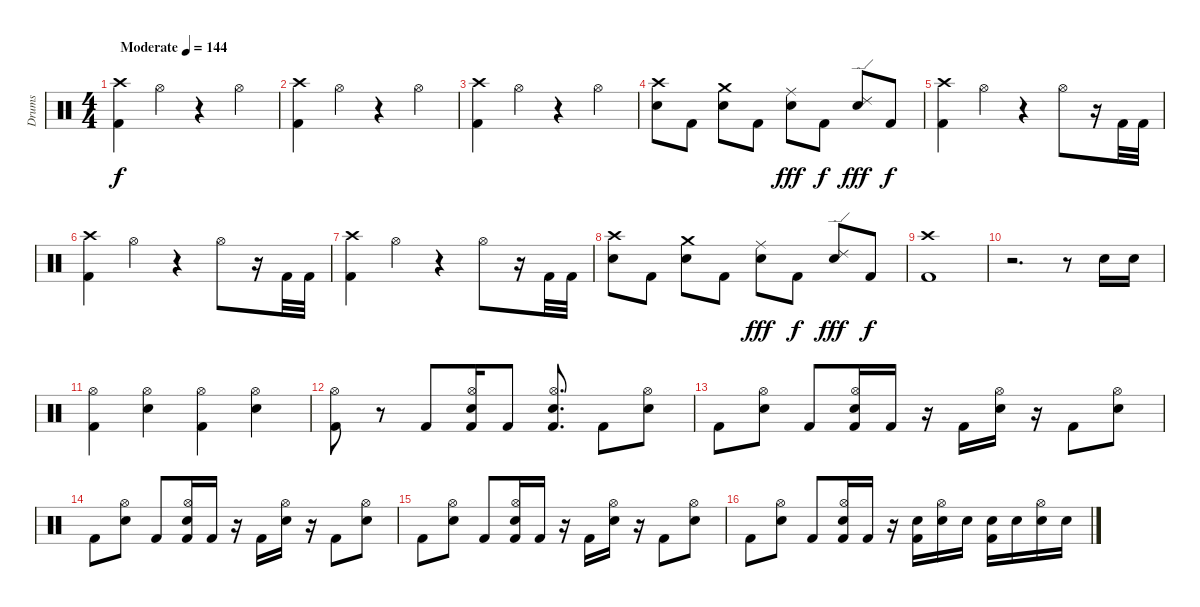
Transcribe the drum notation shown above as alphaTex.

\track ("Drums" "Drums") {instrument percussion}
\staff {score}
\articulation defaults
\ts (4 4)
\tempo (144 "Moderate")
\clef neutral
\ks c
("Crash high (hit)" "Kick (hit) 2").4{dy f} "Hi-Hat (open)".4 r.4 "Hi-Hat (open)".4 |
("Crash high (hit)" "Kick (hit) 2").4 "Hi-Hat (open)".4 r.4 "Hi-Hat (open)".4 |
("Crash high (hit)" "Kick (hit) 2").4 "Hi-Hat (open)".4 r.4 "Hi-Hat (open)".4 |
("Crash high (hit)" "Snare (hit) 2").8 "Kick (hit) 2".8 ("Crash medium (hit)" "Snare (hit) 2").8 "Kick (hit) 2".8 ("Ride (middle)" "Snare (hit) 2").8{dy fff} "Kick (hit) 2".8{dy f} ("Ride (edge) 2" "Snare (hit) 2").8{dy fff} "Kick (hit) 2".8{dy f} |
("Crash high (hit)" "Kick (hit) 2").4 "Hi-Hat (open)".4 r.4 "Hi-Hat (open)".8 r.16 "Kick (hit) 2".32 "Kick (hit) 2".32 |
("Crash high (hit)" "Kick (hit) 2").4 "Hi-Hat (open)".4 r.4 "Hi-Hat (open)".8 r.16 "Kick (hit) 2".32 "Kick (hit) 2".32 |
("Crash high (hit)" "Kick (hit) 2").4 "Hi-Hat (open)".4 r.4 "Hi-Hat (open)".8 r.16 "Kick (hit) 2".32 "Kick (hit) 2".32 |
("Crash high (hit)" "Snare (hit) 2").8 "Kick (hit) 2".8 ("Crash medium (hit)" "Snare (hit) 2").8 "Kick (hit) 2".8 ("Ride (middle)" "Snare (hit) 2").8{dy fff} "Kick (hit) 2".8{dy f} ("Ride (edge) 2" "Snare (hit) 2").8{dy fff} "Kick (hit) 2".8{dy f} |
("Crash high (hit)" "Kick (hit) 2").1 |
r.2{d} r.8 "Snare (hit) 2".16 "Snare (hit) 2".16 |
("Hi-Hat (open)" "Kick (hit) 2").4 ("Hi-Hat (open)" "Snare (hit) 2").4 ("Hi-Hat (open)" "Kick (hit) 2").4 ("Hi-Hat (open)" "Snare (hit) 2").4 |
("Hi-Hat (open)" "Kick (hit) 2").8 r.8 "Kick (hit) 2".8 ("Hi-Hat (open)" "Snare (hit) 2" "Kick (hit) 2").16 "Kick (hit) 2".8 ("Hi-Hat (open)" "Snare (hit) 2" "Kick (hit) 2").8{d} "Kick (hit) 2".8 ("Hi-Hat (open)" "Snare (hit) 2").8 |
"Kick (hit) 2".8 ("Hi-Hat (open)" "Snare (hit) 2").8 "Kick (hit) 2".8 ("Hi-Hat (open)" "Snare (hit) 2" "Kick (hit) 2").16 "Kick (hit) 2".16 r.16 "Kick (hit) 2".16 ("Hi-Hat (open)" "Snare (hit) 2").16 r.16 "Kick (hit) 2".8 ("Hi-Hat (open)" "Snare (hit) 2").8 |
"Kick (hit) 2".8 ("Hi-Hat (open)" "Snare (hit) 2").8 "Kick (hit) 2".8 ("Hi-Hat (open)" "Snare (hit) 2" "Kick (hit) 2").16 "Kick (hit) 2".16 r.16 "Kick (hit) 2".16 ("Hi-Hat (open)" "Snare (hit) 2").16 r.16 "Kick (hit) 2".8 ("Hi-Hat (open)" "Snare (hit) 2").8 |
"Kick (hit) 2".8 ("Hi-Hat (open)" "Snare (hit) 2").8 "Kick (hit) 2".8 ("Hi-Hat (open)" "Snare (hit) 2" "Kick (hit) 2").16 "Kick (hit) 2".16 r.16 "Kick (hit) 2".16 ("Hi-Hat (open)" "Snare (hit) 2").16 r.16 "Kick (hit) 2".8 ("Hi-Hat (open)" "Snare (hit) 2").8 |
"Kick (hit) 2".8 ("Hi-Hat (open)" "Snare (hit) 2").8 "Kick (hit) 2".8 ("Hi-Hat (open)" "Snare (hit) 2" "Kick (hit) 2").16 "Kick (hit) 2".16 r.16 ("Electric Snare (hit)" "Kick (hit) 2").16 ("Hi-Hat (open)" "Electric Snare (hit)").16 "Electric Snare (hit)".16 ("Snare (hit) 2" "Kick (hit) 2").16 "Electric Snare (hit)".16 ("Hi-Hat (open)" "Electric Snare (hit)").16 "Electric Snare (hit)".16
